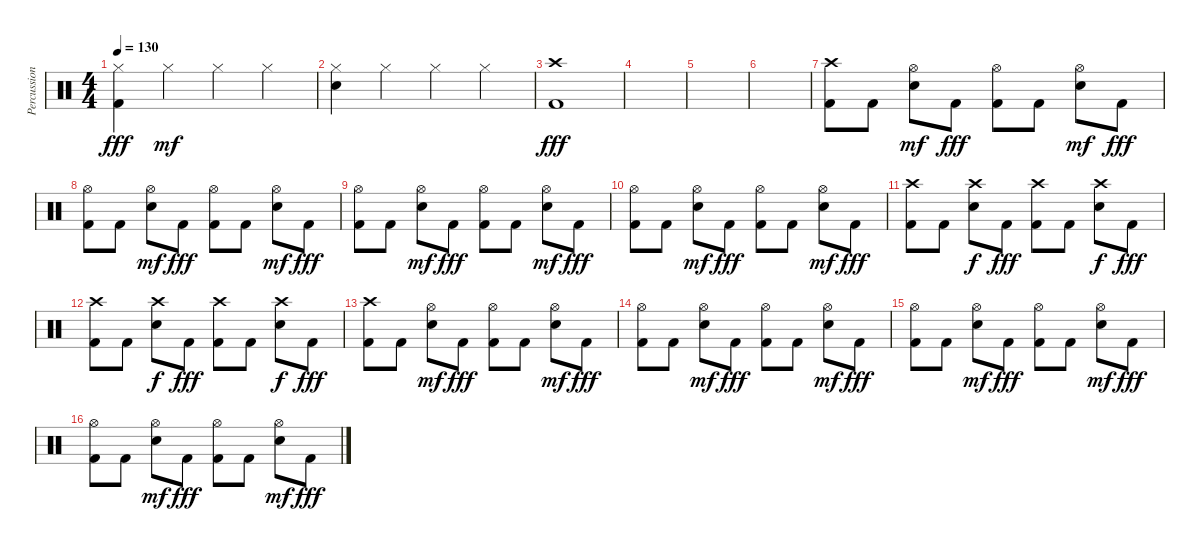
\track ("Percussion" "Percussion") {instrument percussion}
\staff {score}
\articulation defaults
\ts (4 4)
\tempo 130
\clef neutral
\ks c
("Hi-Hat (closed)" "Kick (hit) 2").4{dy fff} "Hi-Hat (closed)".4{dy mf} "Hi-Hat (closed)".4 "Hi-Hat (closed)".4 |
("Hi-Hat (closed)" "Electric Snare (hit)").4 "Hi-Hat (closed)".4 "Hi-Hat (closed)".4 "Hi-Hat (closed)".4 |
("Crash high (hit)" "Kick (hit) 2").1{dy fff} |
|
|
|
("Crash high (hit)" "Kick (hit) 2").8 "Kick (hit) 2".8 ("Hi-Hat (open)" "Electric Snare (hit)").8{dy mf} "Kick (hit) 2".8{dy fff} ("Hi-Hat (open)" "Kick (hit) 2").8 "Kick (hit) 2".8 ("Hi-Hat (open)" "Electric Snare (hit)").8{dy mf} "Kick (hit) 2".8{dy fff} |
("Hi-Hat (open)" "Kick (hit) 2").8 "Kick (hit) 2".8 ("Hi-Hat (open)" "Electric Snare (hit)").8{dy mf} "Kick (hit) 2".8{dy fff} ("Hi-Hat (open)" "Kick (hit) 2").8 "Kick (hit) 2".8 ("Hi-Hat (open)" "Electric Snare (hit)").8{dy mf} "Kick (hit) 2".8{dy fff} |
("Hi-Hat (open)" "Kick (hit) 2").8 "Kick (hit) 2".8 ("Hi-Hat (open)" "Electric Snare (hit)").8{dy mf} "Kick (hit) 2".8{dy fff} ("Hi-Hat (open)" "Kick (hit) 2").8 "Kick (hit) 2".8 ("Hi-Hat (open)" "Electric Snare (hit)").8{dy mf} "Kick (hit) 2".8{dy fff} |
("Hi-Hat (open)" "Kick (hit) 2").8 "Kick (hit) 2".8 ("Hi-Hat (open)" "Electric Snare (hit)").8{dy mf} "Kick (hit) 2".8{dy fff} ("Hi-Hat (open)" "Kick (hit) 2").8 "Kick (hit) 2".8 ("Hi-Hat (open)" "Electric Snare (hit)").8{dy mf} "Kick (hit) 2".8{dy fff} |
("Crash high (hit)" "Kick (hit) 2").8 "Kick (hit) 2".8 ("Crash high (hit)" "Electric Snare (hit)").8{dy f} "Kick (hit) 2".8{dy fff} ("Crash high (hit)" "Kick (hit) 2").8 "Kick (hit) 2".8 ("Crash high (hit)" "Electric Snare (hit)").8{dy f} "Kick (hit) 2".8{dy fff} |
("Crash high (hit)" "Kick (hit) 2").8 "Kick (hit) 2".8 ("Crash high (hit)" "Electric Snare (hit)").8{dy f} "Kick (hit) 2".8{dy fff} ("Crash high (hit)" "Kick (hit) 2").8 "Kick (hit) 2".8 ("Crash high (hit)" "Electric Snare (hit)").8{dy f} "Kick (hit) 2".8{dy fff} |
("Crash high (hit)" "Kick (hit) 2").8 "Kick (hit) 2".8 ("Hi-Hat (open)" "Electric Snare (hit)").8{dy mf} "Kick (hit) 2".8{dy fff} ("Hi-Hat (open)" "Kick (hit) 2").8 "Kick (hit) 2".8 ("Hi-Hat (open)" "Electric Snare (hit)").8{dy mf} "Kick (hit) 2".8{dy fff} |
("Hi-Hat (open)" "Kick (hit) 2").8 "Kick (hit) 2".8 ("Hi-Hat (open)" "Electric Snare (hit)").8{dy mf} "Kick (hit) 2".8{dy fff} ("Hi-Hat (open)" "Kick (hit) 2").8 "Kick (hit) 2".8 ("Hi-Hat (open)" "Electric Snare (hit)").8{dy mf} "Kick (hit) 2".8{dy fff} |
("Hi-Hat (open)" "Kick (hit) 2").8 "Kick (hit) 2".8 ("Hi-Hat (open)" "Electric Snare (hit)").8{dy mf} "Kick (hit) 2".8{dy fff} ("Hi-Hat (open)" "Kick (hit) 2").8 "Kick (hit) 2".8 ("Hi-Hat (open)" "Electric Snare (hit)").8{dy mf} "Kick (hit) 2".8{dy fff} |
("Hi-Hat (open)" "Kick (hit) 2").8 "Kick (hit) 2".8 ("Hi-Hat (open)" "Electric Snare (hit)").8{dy mf} "Kick (hit) 2".8{dy fff} ("Hi-Hat (open)" "Kick (hit) 2").8 "Kick (hit) 2".8 ("Hi-Hat (open)" "Electric Snare (hit)").8{dy mf} "Kick (hit) 2".8{dy fff}
